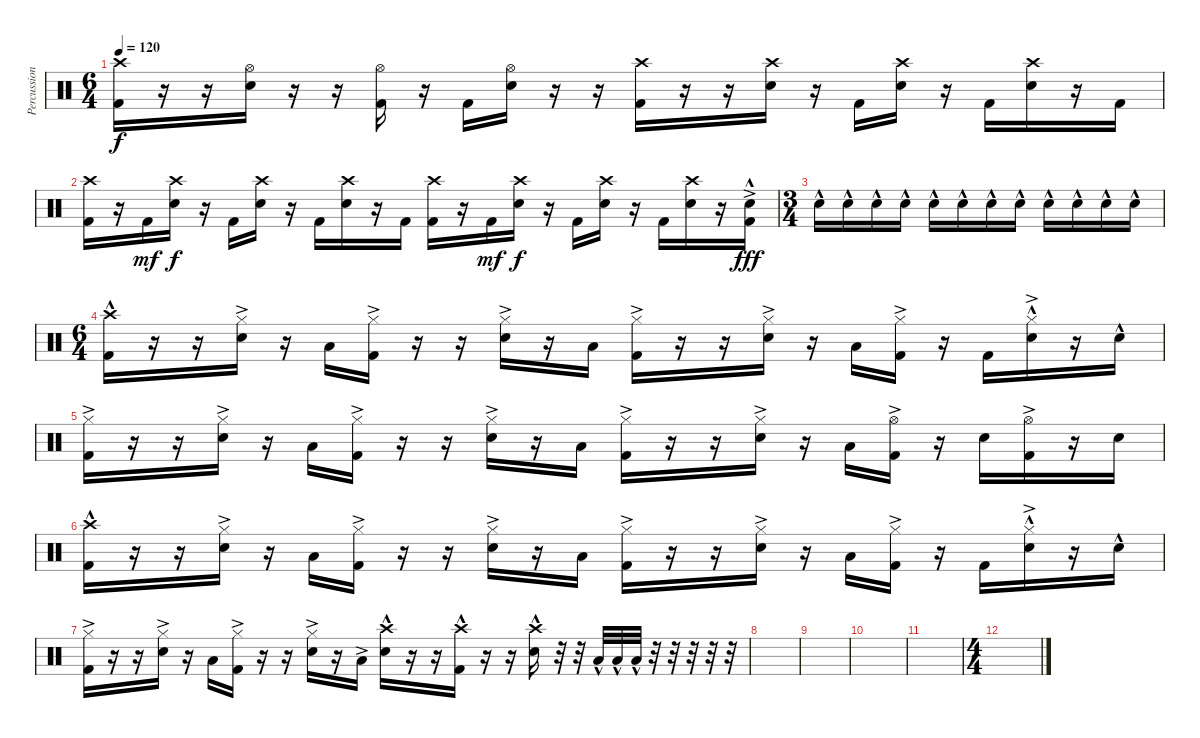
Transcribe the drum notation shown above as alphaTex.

\track ("Percussion" "Percussion") {instrument percussion}
\staff {score}
\articulation defaults
\ts (6 4)
\tempo 120
\clef neutral
\ks c
("Kick (hit) 2" "Crash high (hit)").16{dy f} r.16 r.16 ("Electric Snare (hit)" "Hi-Hat (open)").16 r.16 r.16 ("Kick (hit) 2" "Hi-Hat (open)").16 r.16 "Kick (hit) 2".16 ("Electric Snare (hit)" "Hi-Hat (open)").16 r.16 r.16 ("Kick (hit) 2" "Crash high (hit)").16 r.16 r.16 ("Electric Snare (hit)" "Crash high (hit)").16 r.16 "Kick (hit) 2".16 ("Electric Snare (hit)" "Crash high (hit)").16 r.16 "Kick (hit) 2".16 ("Electric Snare (hit)" "Crash high (hit)").16 r.16 "Kick (hit) 2".16 |
("Kick (hit) 2" "Crash high (hit)").16 r.16 "Kick (hit) 2".16{dy mf} ("Electric Snare (hit)" "Crash high (hit)").16{dy f} r.16 "Kick (hit) 2".16 ("Electric Snare (hit)" "Crash high (hit)").16 r.16 "Kick (hit) 2".16 ("Electric Snare (hit)" "Crash high (hit)").16 r.16 "Kick (hit) 2".16 ("Kick (hit) 2" "Crash high (hit)").16 r.16 "Kick (hit) 2".16{dy mf} ("Electric Snare (hit)" "Crash high (hit)").16{dy f} r.16 "Kick (hit) 2".16 ("Electric Snare (hit)" "Crash high (hit)").16 r.16 "Kick (hit) 2".16 ("Electric Snare (hit)" "Crash high (hit)").16 r.16 ("Kick (hit) 2"{ac} "Electric Snare (hit)"{hac}).16{dy fff} |
\ts (3 4)
"Electric Snare (hit)"{hac}.16 "Electric Snare (hit)"{hac}.16 "Electric Snare (hit)"{hac}.16 "Electric Snare (hit)"{hac}.16 "Electric Snare (hit)"{hac}.16 "Electric Snare (hit)"{hac}.16 "Electric Snare (hit)"{hac}.16 "Electric Snare (hit)"{hac}.16 "Electric Snare (hit)"{hac}.16 "Electric Snare (hit)"{hac}.16 "Electric Snare (hit)"{hac}.16 "Electric Snare (hit)"{hac}.16 |
\ts (6 4)
("Kick (hit) 2" "Crash high (hit)"{hac}).16 r.16 r.16 ("Electric Snare (hit)" "Hi-Hat (closed)"{ac}).16 r.16 "Low Floor Tom (hit)".16 ("Kick (hit) 2" "Hi-Hat (closed)"{ac}).16 r.16 r.16 ("Electric Snare (hit)" "Hi-Hat (closed)"{ac}).16 r.16 "Low Floor Tom (hit)".16 ("Kick (hit) 2" "Hi-Hat (closed)"{ac}).16 r.16 r.16 ("Electric Snare (hit)" "Hi-Hat (closed)"{ac}).16 r.16 "Low Floor Tom (hit)".16 ("Kick (hit) 2" "Hi-Hat (closed)"{ac}).16 r.16 "Kick (hit) 2".16 ("Electric Snare (hit)"{hac} "Hi-Hat (closed)"{ac}).16 r.16 "Electric Snare (hit)"{hac}.16 |
("Kick (hit) 2" "Hi-Hat (closed)"{ac}).16 r.16 r.16 ("Electric Snare (hit)" "Hi-Hat (closed)"{ac}).16 r.16 "Low Floor Tom (hit)".16 ("Kick (hit) 2" "Hi-Hat (closed)"{ac}).16 r.16 r.16 ("Electric Snare (hit)" "Hi-Hat (closed)"{ac}).16 r.16 "Low Floor Tom (hit)".16 ("Kick (hit) 2" "Hi-Hat (closed)"{ac}).16 r.16 r.16 ("Electric Snare (hit)" "Hi-Hat (closed)"{ac}).16 r.16 "Low Floor Tom (hit)".16 ("Kick (hit) 2" "Hi-Hat (open)"{ac}).16 r.16 "Electric Snare (hit)".16 ("Kick (hit) 2" "Hi-Hat (open)"{ac}).16 r.16 "Electric Snare (hit)".16 |
("Kick (hit) 2" "Crash high (hit)"{hac}).16 r.16 r.16 ("Electric Snare (hit)" "Hi-Hat (closed)"{ac}).16 r.16 "Low Floor Tom (hit)".16 ("Kick (hit) 2" "Hi-Hat (closed)"{ac}).16 r.16 r.16 ("Electric Snare (hit)" "Hi-Hat (closed)"{ac}).16 r.16 "Low Floor Tom (hit)".16 ("Kick (hit) 2" "Hi-Hat (closed)"{ac}).16 r.16 r.16 ("Electric Snare (hit)" "Hi-Hat (closed)"{ac}).16 r.16 "Low Floor Tom (hit)".16 ("Kick (hit) 2" "Hi-Hat (closed)"{ac}).16 r.16 "Kick (hit) 2".16 ("Electric Snare (hit)"{hac} "Hi-Hat (closed)"{ac}).16 r.16 "Electric Snare (hit)"{hac}.16 |
("Kick (hit) 2" "Hi-Hat (closed)"{ac}).16 r.16 r.16 ("Electric Snare (hit)" "Hi-Hat (closed)"{ac}).16 r.16 "Low Floor Tom (hit)".16 ("Kick (hit) 2" "Hi-Hat (closed)"{ac}).16 r.16 r.16 ("Electric Snare (hit)" "Hi-Hat (closed)"{ac}).16 r.16 "Low Floor Tom (hit)"{ac}.16 ("Electric Snare (hit)"{hac} "Crash high (hit)"{hac}).16 r.16 r.16 ("Kick (hit) 2"{hac} "Crash high (hit)"{hac}).16 r.16 r.16 ("Electric Snare (hit)"{hac} "Crash high (hit)"{hac}).16 r.32 r.32 "Low Floor Tom (hit)"{hac}.32 "Low Floor Tom (hit)"{hac}.32 "Low Floor Tom (hit)"{hac}.32 r.32 r.32 r.32 r.32 r.32 |
|
|
|
|
\ts (4 4)
